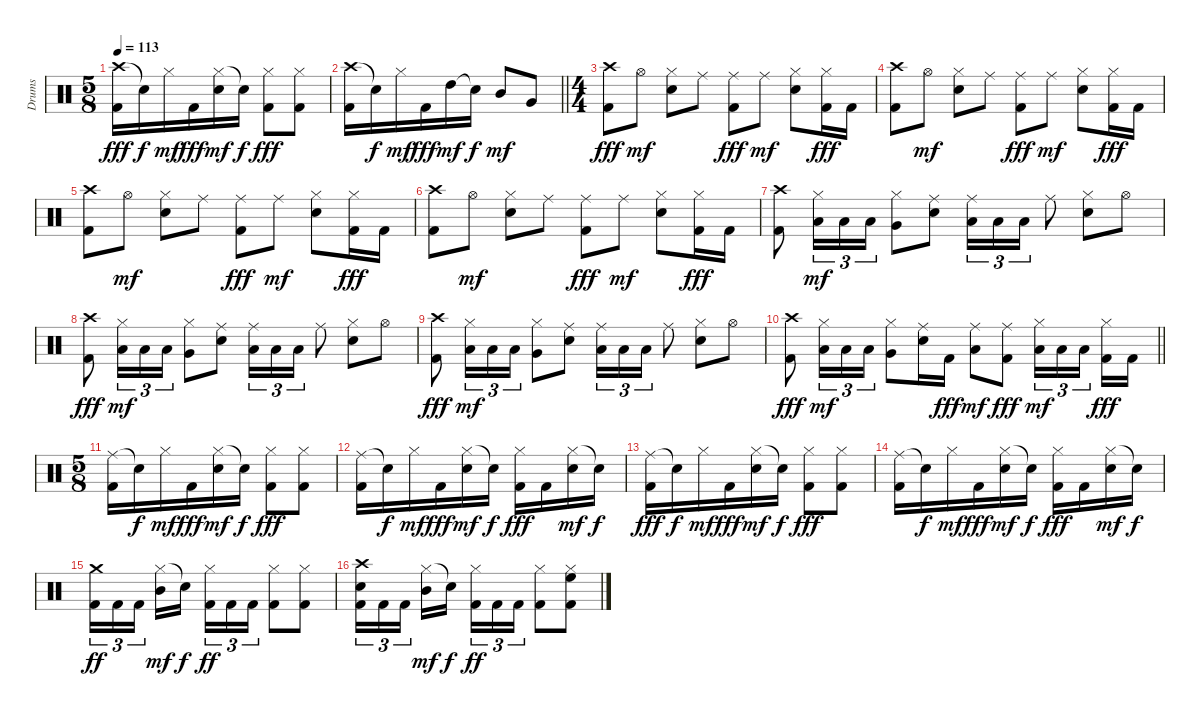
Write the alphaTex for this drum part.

\track ("Drums" "Drums") {instrument percussion}
\staff {score}
\articulation defaults
\ts (5 8)
\tempo 113
\clef neutral
\ks c
("Crash high (hit)" "Kick (hit) 2").16{dy fff} "Snare (hit)"{t}.16{dy f} "Hi-Hat (closed)".16{dy mf} "Kick (hit) 2".16{dy fff} ("Hi-Hat (closed)" "Snare (hit) 2").16{dy mf} "Snare (hit)"{t}.16{dy f} ("Hi-Hat (closed)" "Kick (hit) 2").8{dy fff} ("Hi-Hat (closed)" "Kick (hit) 2").8 |
\barLineRight lightlight
("Crash high (hit)" "Kick (hit) 2").16 "Snare (hit)"{t}.16{dy f} "Hi-Hat (closed)".16{dy mf} "Kick (hit) 2".16{dy fff} "High Tom (hit)".16{dy mf} "Snare (hit)"{t}.16{dy f} "Mid Tom (hit)".8{dy mf} "Very Low Tom (hit)".8 |
\ts (4 4)
\section ("" "")
("Crash high (hit)" "Kick (hit) 2").8{dy fff} "Hi-Hat (open)".8{dy mf} ("Hi-Hat (closed)" "Snare (hit) 2").8 "Ride (middle)".8 ("Ride (middle)" "Kick (hit) 2").8{dy fff} "Ride (middle)".8{dy mf} ("Hi-Hat (closed)" "Snare (hit) 2").8 ("Hi-Hat (closed)" "Kick (hit) 2").16{dy fff} "Kick (hit) 2".16 |
("Crash high (hit)" "Kick (hit) 2").8 "Hi-Hat (open)".8{dy mf} ("Hi-Hat (closed)" "Snare (hit) 2").8 "Ride (middle)".8 ("Ride (middle)" "Kick (hit) 2").8{dy fff} "Ride (middle)".8{dy mf} ("Hi-Hat (closed)" "Snare (hit) 2").8 ("Hi-Hat (closed)" "Kick (hit) 2").16{dy fff} "Kick (hit) 2".16 |
("Crash high (hit)" "Kick (hit) 2").8 "Hi-Hat (open)".8{dy mf} ("Hi-Hat (closed)" "Snare (hit) 2").8 "Ride (middle)".8 ("Ride (middle)" "Kick (hit) 2").8{dy fff} "Ride (middle)".8{dy mf} ("Hi-Hat (closed)" "Snare (hit) 2").8 ("Hi-Hat (closed)" "Kick (hit) 2").16{dy fff} "Kick (hit) 2".16 |
("Crash high (hit)" "Kick (hit) 2").8 "Hi-Hat (open)".8{dy mf} ("Hi-Hat (closed)" "Snare (hit) 2").8 "Ride (middle)".8 ("Ride (middle)" "Kick (hit) 2").8{dy fff} "Ride (middle)".8{dy mf} ("Hi-Hat (closed)" "Snare (hit) 2").8 ("Hi-Hat (closed)" "Kick (hit) 2").16{dy fff} "Kick (hit) 2".16 |
("Crash high (hit)" "Kick (hit) 2").8 ("Hi-Hat (closed)" "Low Tom (hit)").16{tu (3 2) dy mf} "Low Tom (hit)".16{tu (3 2)} "Low Tom (hit)".16{tu (3 2)} ("Hi-Hat (closed)" "Very Low Tom (hit)").8 ("Ride (middle)" "Snare (hit) 2").8 ("Ride (middle)" "Low Tom (hit)").16{tu (3 2)} "Low Tom (hit)".16{tu (3 2)} "Low Tom (hit)".16{tu (3 2)} "Ride (middle)".8 ("Hi-Hat (closed)" "Snare (hit) 2").8 "Hi-Hat (open)".8 |
("Crash high (hit)" "Kick (hit) 2").8{dy fff} ("Hi-Hat (closed)" "Low Tom (hit)").16{tu (3 2) dy mf} "Low Tom (hit)".16{tu (3 2)} "Low Tom (hit)".16{tu (3 2)} ("Hi-Hat (closed)" "Very Low Tom (hit)").8 ("Ride (middle)" "Snare (hit) 2").8 ("Ride (middle)" "Low Tom (hit)").16{tu (3 2)} "Low Tom (hit)".16{tu (3 2)} "Low Tom (hit)".16{tu (3 2)} "Ride (middle)".8 ("Hi-Hat (closed)" "Snare (hit) 2").8 "Hi-Hat (open)".8 |
("Crash high (hit)" "Kick (hit) 2").8{dy fff} ("Hi-Hat (closed)" "Low Tom (hit)").16{tu (3 2) dy mf} "Low Tom (hit)".16{tu (3 2)} "Low Tom (hit)".16{tu (3 2)} ("Hi-Hat (closed)" "Very Low Tom (hit)").8 ("Ride (middle)" "Snare (hit) 2").8 ("Ride (middle)" "Low Tom (hit)").16{tu (3 2)} "Low Tom (hit)".16{tu (3 2)} "Low Tom (hit)".16{tu (3 2)} "Ride (middle)".8 ("Hi-Hat (closed)" "Snare (hit) 2").8 "Hi-Hat (open)".8 |
\barLineRight lightlight
("Crash high (hit)" "Kick (hit) 2").8{dy fff} ("Hi-Hat (closed)" "Low Tom (hit)").16{tu (3 2) dy mf} "Low Tom (hit)".16{tu (3 2)} "Low Tom (hit)".16{tu (3 2)} ("Hi-Hat (closed)" "Very Low Tom (hit)").8 ("Ride (middle)" "Snare (hit) 2").16 "Kick (hit) 2".16{dy fff} ("Ride (middle)" "Low Tom (hit)").8{dy mf} ("Ride (middle)" "Kick (hit) 2").8{dy fff} ("Hi-Hat (closed)" "Low Tom (hit)").16{tu (3 2) dy mf} "Low Tom (hit)".16{tu (3 2)} "Low Tom (hit)".16{tu (3 2) beam splitsecondary} ("Hi-Hat (closed)" "Kick (hit) 2").16{dy fff} "Kick (hit) 2".16 |
\ts (5 8)
\section ("" "")
("Ride (middle)" "Kick (hit) 2").16 "Snare (hit)"{t}.16{dy f} "Hi-Hat (closed)".16{dy mf} "Kick (hit) 2".16{dy fff} ("Hi-Hat (closed)" "Snare (hit) 2").16{dy mf} "Snare (hit)"{t}.16{dy f} ("Hi-Hat (closed)" "Kick (hit) 2").8{dy fff} ("Hi-Hat (closed)" "Kick (hit) 2").8 |
("Ride (middle)" "Kick (hit) 2").16 "Snare (hit)"{t}.16{dy f} "Hi-Hat (closed)".16{dy mf} "Kick (hit) 2".16{dy fff} ("Hi-Hat (closed)" "Snare (hit) 2").16{dy mf} "Snare (hit)"{t}.16{dy f} ("Hi-Hat (closed)" "Kick (hit) 2").16{dy fff} "Kick (hit) 2".16 ("Hi-Hat (closed)" "Snare (hit) 2").16{dy mf} "Snare (hit)"{t}.16{dy f} |
("Ride (middle)" "Kick (hit) 2").16{dy fff} "Snare (hit)"{t}.16{dy f} "Hi-Hat (closed)".16{dy mf} "Kick (hit) 2".16{dy fff} ("Hi-Hat (closed)" "Snare (hit) 2").16{dy mf} "Snare (hit)"{t}.16{dy f} ("Hi-Hat (closed)" "Kick (hit) 2").8{dy fff} ("Hi-Hat (closed)" "Kick (hit) 2").8 |
("Ride (middle)" "Kick (hit) 2").16 "Snare (hit)"{t}.16{dy f} "Hi-Hat (closed)".16{dy mf} "Kick (hit) 2".16{dy fff} ("Hi-Hat (closed)" "Snare (hit) 2").16{dy mf} "Snare (hit)"{t}.16{dy f} ("Hi-Hat (closed)" "Kick (hit) 2").16{dy fff} "Kick (hit) 2".16 ("Hi-Hat (closed)" "Snare (hit) 2").16{dy mf} "Snare (hit)"{t}.16{dy f} |
("Crash medium (hit)" "Kick (hit) 2").16{tu (3 2) dy ff} "Kick (hit) 2".16{tu (3 2)} "Kick (hit) 2".16{tu (3 2)} ("Hi-Hat (closed)" "Mid Tom (hit)").16{dy mf} "Snare (hit)"{t}.16{dy f} ("Hi-Hat (closed)" "Kick (hit) 2").16{tu (3 2) dy ff} "Kick (hit) 2".16{tu (3 2)} "Kick (hit) 2".16{tu (3 2)} ("Hi-Hat (closed)" "Kick (hit) 2").8 ("Hi-Hat (closed)" "Kick (hit) 2").8 |
("Crash high (hit)" "Snare (hit) 2" "Kick (hit) 2").16{tu (3 2)} "Kick (hit) 2".16{tu (3 2)} "Kick (hit) 2".16{tu (3 2)} ("Hi-Hat (closed)" "Mid Tom (hit)").16{dy mf} "Snare (hit)"{t}.16{dy f} ("Hi-Hat (closed)" "Kick (hit) 2").16{tu (3 2) dy ff} "Kick (hit) 2".16{tu (3 2)} "Kick (hit) 2".16{tu (3 2)} ("Hi-Hat (closed)" "Kick (hit) 2").8 ("Hi-Hat (closed)" "High Floor Tom (hit)" "Kick (hit) 2").8
